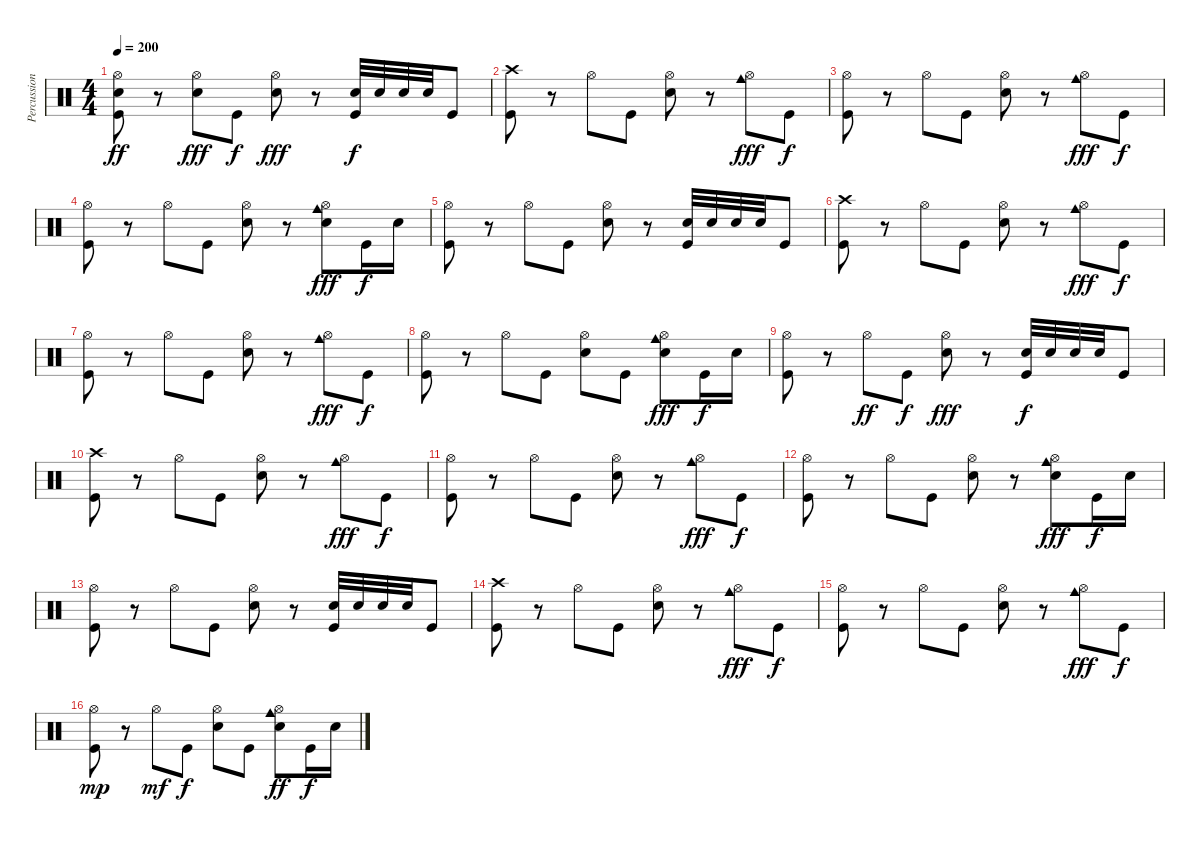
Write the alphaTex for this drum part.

\track ("Percussion" "Percussion") {instrument percussion}
\staff {score}
\articulation defaults
\ts (4 4)
\tempo 200
\clef neutral
\ks c
("Hi-Hat (open)" "Electric Snare (hit)" "Kick (hit)").8{dy ff} r.8 ("Hi-Hat (open)" "Electric Snare (hit)").8{dy fff} "Kick (hit)".8{dy f} ("Hi-Hat (open)" "Electric Snare (hit)").8{dy fff} r.8 ("Electric Snare (hit)" "Kick (hit)").32{dy f} "Electric Snare (hit)".32 "Electric Snare (hit)".32 "Electric Snare (hit)".32 "Kick (hit)".8 |
("Crash high (hit)" "Kick (hit)").8 r.8 "Hi-Hat (open)".8 "Kick (hit)".8 ("Hi-Hat (open)" "Electric Snare (hit)").8 r.8 ("Hi-Hat (open)" "Cowbell medium (hit)").8{dy fff} "Kick (hit)".8{dy f} |
("Hi-Hat (open)" "Kick (hit)").8 r.8 "Hi-Hat (open)".8 "Kick (hit)".8 ("Hi-Hat (open)" "Electric Snare (hit)").8 r.8 ("Hi-Hat (open)" "Cowbell medium (hit)").8{dy fff} "Kick (hit)".8{dy f} |
("Hi-Hat (open)" "Kick (hit)").8 r.8 "Hi-Hat (open)".8 "Kick (hit)".8 ("Hi-Hat (open)" "Electric Snare (hit)").8 r.8 ("Hi-Hat (open)" "Cowbell medium (hit)" "Electric Snare (hit)").8{dy fff} "Kick (hit)".16{dy f} "Electric Snare (hit)".16 |
("Hi-Hat (open)" "Kick (hit)").8 r.8 "Hi-Hat (open)".8 "Kick (hit)".8 ("Hi-Hat (open)" "Electric Snare (hit)").8 r.8 ("Electric Snare (hit)" "Kick (hit)").32 "Electric Snare (hit)".32 "Electric Snare (hit)".32 "Electric Snare (hit)".32 "Kick (hit)".8 |
("Crash high (hit)" "Kick (hit)").8 r.8 "Hi-Hat (open)".8 "Kick (hit)".8 ("Hi-Hat (open)" "Electric Snare (hit)").8 r.8 ("Hi-Hat (open)" "Cowbell medium (hit)").8{dy fff} "Kick (hit)".8{dy f} |
("Hi-Hat (open)" "Kick (hit)").8 r.8 "Hi-Hat (open)".8 "Kick (hit)".8 ("Hi-Hat (open)" "Electric Snare (hit)").8 r.8 ("Hi-Hat (open)" "Cowbell medium (hit)").8{dy fff} "Kick (hit)".8{dy f} |
("Hi-Hat (open)" "Kick (hit)").8 r.8 "Hi-Hat (open)".8 "Kick (hit)".8 ("Hi-Hat (open)" "Electric Snare (hit)").8 "Kick (hit)".8 ("Hi-Hat (open)" "Cowbell medium (hit)" "Electric Snare (hit)").8{dy fff} "Kick (hit)".16{dy f} "Electric Snare (hit)".16 |
("Hi-Hat (open)" "Kick (hit)").8 r.8 "Hi-Hat (open)".8{dy ff} "Kick (hit)".8{dy f} ("Hi-Hat (open)" "Electric Snare (hit)").8{dy fff} r.8 ("Electric Snare (hit)" "Kick (hit)").32{dy f} "Electric Snare (hit)".32 "Electric Snare (hit)".32 "Electric Snare (hit)".32 "Kick (hit)".8 |
("Crash high (hit)" "Kick (hit)").8 r.8 "Hi-Hat (open)".8 "Kick (hit)".8 ("Hi-Hat (open)" "Electric Snare (hit)").8 r.8 ("Hi-Hat (open)" "Cowbell medium (hit)").8{dy fff} "Kick (hit)".8{dy f} |
("Hi-Hat (open)" "Kick (hit)").8 r.8 "Hi-Hat (open)".8 "Kick (hit)".8 ("Hi-Hat (open)" "Electric Snare (hit)").8 r.8 ("Hi-Hat (open)" "Cowbell medium (hit)").8{dy fff} "Kick (hit)".8{dy f} |
("Hi-Hat (open)" "Kick (hit)").8 r.8 "Hi-Hat (open)".8 "Kick (hit)".8 ("Hi-Hat (open)" "Electric Snare (hit)").8 r.8 ("Hi-Hat (open)" "Cowbell medium (hit)" "Electric Snare (hit)").8{dy fff} "Kick (hit)".16{dy f} "Electric Snare (hit)".16 |
("Hi-Hat (open)" "Kick (hit)").8 r.8 "Hi-Hat (open)".8 "Kick (hit)".8 ("Hi-Hat (open)" "Electric Snare (hit)").8 r.8 ("Electric Snare (hit)" "Kick (hit)").32 "Electric Snare (hit)".32 "Electric Snare (hit)".32 "Electric Snare (hit)".32 "Kick (hit)".8 |
("Crash high (hit)" "Kick (hit)").8 r.8 "Hi-Hat (open)".8 "Kick (hit)".8 ("Hi-Hat (open)" "Electric Snare (hit)").8 r.8 ("Hi-Hat (open)" "Cowbell medium (hit)").8{dy fff} "Kick (hit)".8{dy f} |
("Hi-Hat (open)" "Kick (hit)").8 r.8 "Hi-Hat (open)".8 "Kick (hit)".8 ("Hi-Hat (open)" "Electric Snare (hit)").8 r.8 ("Hi-Hat (open)" "Cowbell medium (hit)").8{dy fff} "Kick (hit)".8{dy f} |
("Hi-Hat (open)" "Kick (hit)").8{dy mp} r.8 "Hi-Hat (open)".8{dy mf} "Kick (hit)".8{dy f} ("Hi-Hat (open)" "Electric Snare (hit)").8 "Kick (hit)".8 ("Hi-Hat (open)" "Cowbell medium (hit)" "Electric Snare (hit)").8{dy ff} "Kick (hit)".16{dy f} "Electric Snare (hit)".16
